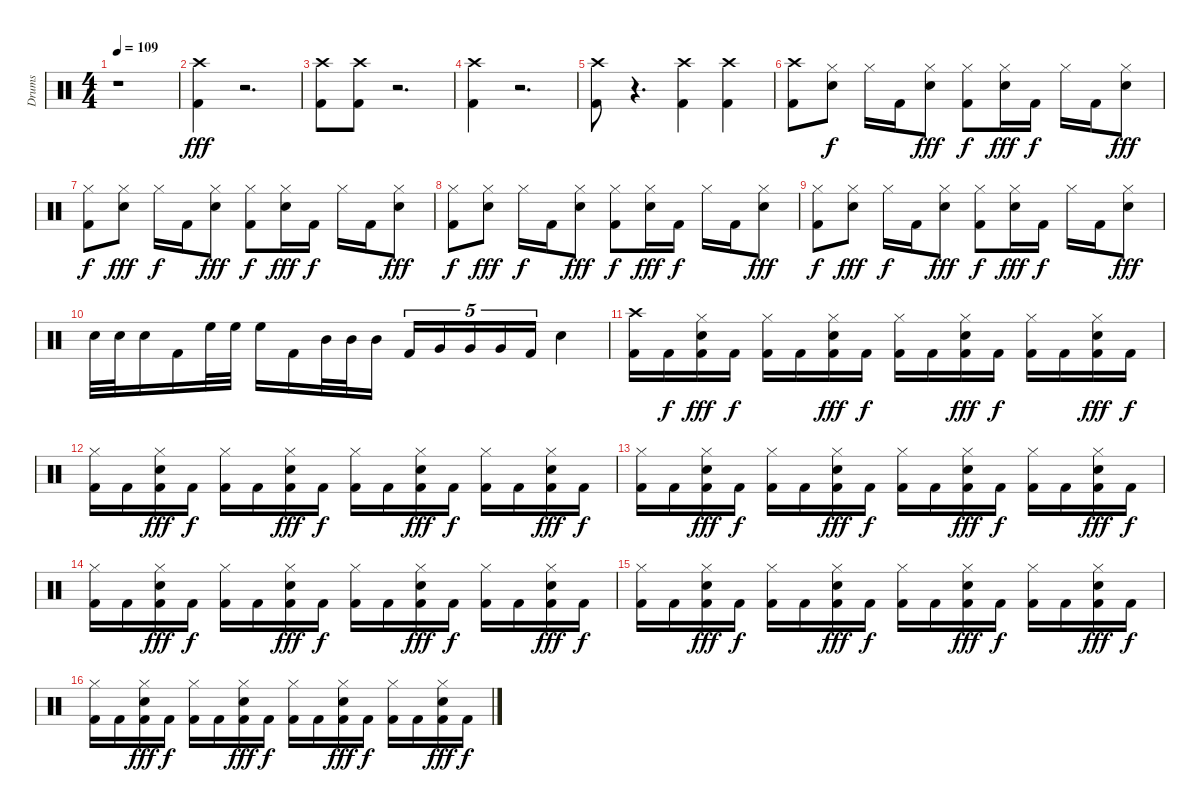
\track ("Drums" "Drums") {instrument percussion}
\staff {score}
\articulation defaults
\ts (4 4)
\tempo 109
\clef neutral
\ks c
r.1{dy fff} |
("Kick (hit) 2" "Crash high (hit)").4 r.2{d} |
("Kick (hit) 2" "Crash high (hit)").8 ("Kick (hit) 2" "Crash high (hit)").8 r.2{d} |
("Kick (hit) 2" "Crash high (hit)").4 r.2{d} |
("Kick (hit) 2" "Crash high (hit)").8 r.4{d} ("Crash high (hit)" "Kick (hit) 2").4 ("Crash high (hit)" "Kick (hit) 2").4 |
("Kick (hit) 2" "Crash high (hit)").8 ("Snare (hit) 2" "Hi-Hat (closed)").8{dy f} "Hi-Hat (closed)".16 "Kick (hit) 2".16 ("Hi-Hat (closed)" "Snare (hit) 2").8{dy fff} ("Hi-Hat (closed)" "Kick (hit) 2").8{dy f} ("Hi-Hat (closed)" "Snare (hit) 2").16{dy fff} "Kick (hit) 2".16{dy f} "Hi-Hat (closed)".16 "Kick (hit) 2".16 ("Hi-Hat (closed)" "Snare (hit) 2").8{dy fff} |
("Hi-Hat (closed)" "Kick (hit) 2").8{dy f} ("Hi-Hat (closed)" "Snare (hit) 2").8{dy fff} "Hi-Hat (closed)".16{dy f} "Kick (hit) 2".16 ("Hi-Hat (closed)" "Snare (hit) 2").8{dy fff} ("Kick (hit) 2" "Hi-Hat (closed)").8{dy f} ("Hi-Hat (closed)" "Snare (hit) 2").16{dy fff} "Kick (hit) 2".16{dy f} "Hi-Hat (closed)".16 "Kick (hit) 2".16 ("Hi-Hat (closed)" "Snare (hit) 2").8{dy fff} |
("Hi-Hat (closed)" "Kick (hit) 2").8{dy f} ("Hi-Hat (closed)" "Snare (hit) 2").8{dy fff} "Hi-Hat (closed)".16{dy f} "Kick (hit) 2".16 ("Hi-Hat (closed)" "Snare (hit) 2").8{dy fff} ("Kick (hit) 2" "Hi-Hat (closed)").8{dy f} ("Hi-Hat (closed)" "Snare (hit) 2").16{dy fff} "Kick (hit) 2".16{dy f} "Hi-Hat (closed)".16 "Kick (hit) 2".16 ("Hi-Hat (closed)" "Snare (hit) 2").8{dy fff} |
("Hi-Hat (closed)" "Kick (hit) 2").8{dy f} ("Hi-Hat (closed)" "Snare (hit) 2").8{dy fff} "Hi-Hat (closed)".16{dy f} "Kick (hit) 2".16 ("Hi-Hat (closed)" "Snare (hit) 2").8{dy fff} ("Kick (hit) 2" "Hi-Hat (closed)").8{dy f} ("Hi-Hat (closed)" "Snare (hit) 2").16{dy fff} "Kick (hit) 2".16{dy f} "Hi-Hat (closed)".16 "Kick (hit) 2".16 ("Hi-Hat (closed)" "Snare (hit) 2").8{dy fff} |
"Snare (hit) 2".32 "Snare (hit) 2".32 "Snare (hit) 2".16 "Kick (hit) 2".16 "High Floor Tom (hit)".32 "High Floor Tom (hit)".32 "High Floor Tom (hit)".16 "Kick (hit) 2".16 "Mid Tom (hit)".32 "Mid Tom (hit)".32 "Mid Tom (hit)".16 "Kick (hit) 2".16{tu (5 4)} "Very Low Tom (hit)".16{tu (5 4)} "Very Low Tom (hit)".16{tu (5 4)} "Very Low Tom (hit)".16{tu (5 4)} "Kick (hit) 2".16{tu (5 4)} "Snare (hit) 2".4 |
("Kick (hit) 2" "Crash high (hit)").16 "Kick (hit) 2".16{dy f} ("Hi-Hat (closed)" "Kick (hit) 2" "Snare (hit) 2").16{dy fff} "Kick (hit) 2".16{dy f} ("Kick (hit) 2" "Hi-Hat (closed)").16 "Kick (hit) 2".16 ("Hi-Hat (closed)" "Kick (hit) 2" "Snare (hit) 2").16{dy fff} "Kick (hit) 2".16{dy f} ("Kick (hit) 2" "Hi-Hat (closed)").16 "Kick (hit) 2".16 ("Hi-Hat (closed)" "Kick (hit) 2" "Snare (hit) 2").16{dy fff} "Kick (hit) 2".16{dy f} ("Kick (hit) 2" "Hi-Hat (closed)").16 "Kick (hit) 2".16 ("Hi-Hat (closed)" "Kick (hit) 2" "Snare (hit) 2").16{dy fff} "Kick (hit) 2".16{dy f} |
("Kick (hit) 2" "Hi-Hat (closed)").16 "Kick (hit) 2".16 ("Hi-Hat (closed)" "Kick (hit) 2" "Snare (hit) 2").16{dy fff} "Kick (hit) 2".16{dy f} ("Kick (hit) 2" "Hi-Hat (closed)").16 "Kick (hit) 2".16 ("Hi-Hat (closed)" "Kick (hit) 2" "Snare (hit) 2").16{dy fff} "Kick (hit) 2".16{dy f} ("Kick (hit) 2" "Hi-Hat (closed)").16 "Kick (hit) 2".16 ("Hi-Hat (closed)" "Kick (hit) 2" "Snare (hit) 2").16{dy fff} "Kick (hit) 2".16{dy f} ("Kick (hit) 2" "Hi-Hat (closed)").16 "Kick (hit) 2".16 ("Hi-Hat (closed)" "Kick (hit) 2" "Snare (hit) 2").16{dy fff} "Kick (hit) 2".16{dy f} |
("Kick (hit) 2" "Hi-Hat (closed)").16 "Kick (hit) 2".16 ("Hi-Hat (closed)" "Kick (hit) 2" "Snare (hit) 2").16{dy fff} "Kick (hit) 2".16{dy f} ("Kick (hit) 2" "Hi-Hat (closed)").16 "Kick (hit) 2".16 ("Hi-Hat (closed)" "Kick (hit) 2" "Snare (hit) 2").16{dy fff} "Kick (hit) 2".16{dy f} ("Kick (hit) 2" "Hi-Hat (closed)").16 "Kick (hit) 2".16 ("Hi-Hat (closed)" "Kick (hit) 2" "Snare (hit) 2").16{dy fff} "Kick (hit) 2".16{dy f} ("Kick (hit) 2" "Hi-Hat (closed)").16 "Kick (hit) 2".16 ("Hi-Hat (closed)" "Kick (hit) 2" "Snare (hit) 2").16{dy fff} "Kick (hit) 2".16{dy f} |
("Kick (hit) 2" "Hi-Hat (closed)").16 "Kick (hit) 2".16 ("Hi-Hat (closed)" "Kick (hit) 2" "Snare (hit) 2").16{dy fff} "Kick (hit) 2".16{dy f} ("Kick (hit) 2" "Hi-Hat (closed)").16 "Kick (hit) 2".16 ("Hi-Hat (closed)" "Kick (hit) 2" "Snare (hit) 2").16{dy fff} "Kick (hit) 2".16{dy f} ("Kick (hit) 2" "Hi-Hat (closed)").16 "Kick (hit) 2".16 ("Hi-Hat (closed)" "Kick (hit) 2" "Snare (hit) 2").16{dy fff} "Kick (hit) 2".16{dy f} ("Kick (hit) 2" "Hi-Hat (closed)").16 "Kick (hit) 2".16 ("Hi-Hat (closed)" "Kick (hit) 2" "Snare (hit) 2").16{dy fff} "Kick (hit) 2".16{dy f} |
("Kick (hit) 2" "Hi-Hat (closed)").16 "Kick (hit) 2".16 ("Hi-Hat (closed)" "Kick (hit) 2" "Snare (hit) 2").16{dy fff} "Kick (hit) 2".16{dy f} ("Kick (hit) 2" "Hi-Hat (closed)").16 "Kick (hit) 2".16 ("Hi-Hat (closed)" "Kick (hit) 2" "Snare (hit) 2").16{dy fff} "Kick (hit) 2".16{dy f} ("Kick (hit) 2" "Hi-Hat (closed)").16 "Kick (hit) 2".16 ("Hi-Hat (closed)" "Kick (hit) 2" "Snare (hit) 2").16{dy fff} "Kick (hit) 2".16{dy f} ("Hi-Hat (closed)" "Kick (hit) 2").16 "Kick (hit) 2".16 ("Kick (hit) 2" "Snare (hit) 2" "Hi-Hat (closed)").16{dy fff} "Kick (hit) 2".16{dy f} |
("Kick (hit) 2" "Hi-Hat (closed)").16 "Kick (hit) 2".16 ("Hi-Hat (closed)" "Kick (hit) 2" "Snare (hit) 2").16{dy fff} "Kick (hit) 2".16{dy f} ("Kick (hit) 2" "Hi-Hat (closed)").16 "Kick (hit) 2".16 ("Hi-Hat (closed)" "Kick (hit) 2" "Snare (hit) 2").16{dy fff} "Kick (hit) 2".16{dy f} ("Kick (hit) 2" "Hi-Hat (closed)").16 "Kick (hit) 2".16 ("Hi-Hat (closed)" "Kick (hit) 2" "Snare (hit) 2").16{dy fff} "Kick (hit) 2".16{dy f} ("Kick (hit) 2" "Hi-Hat (closed)").16 "Kick (hit) 2".16 ("Hi-Hat (closed)" "Kick (hit) 2" "Snare (hit) 2").16{dy fff} "Kick (hit) 2".16{dy f}
